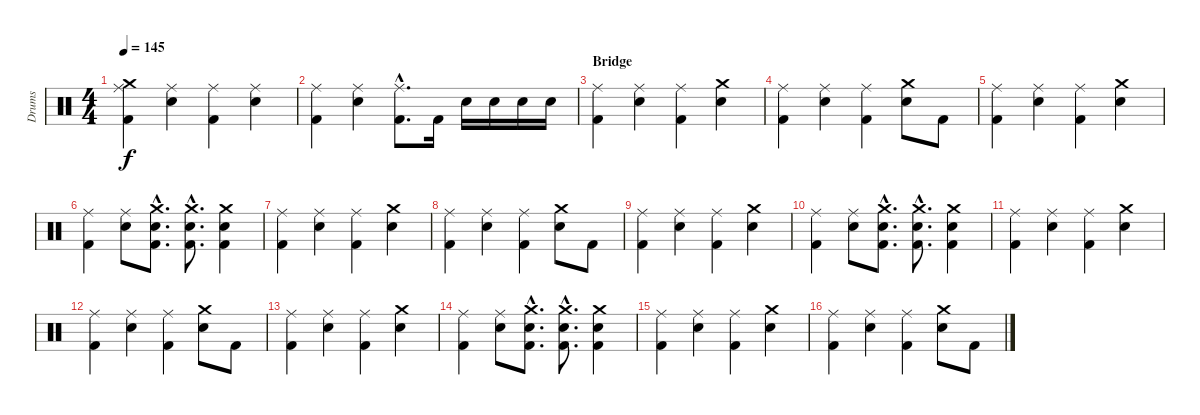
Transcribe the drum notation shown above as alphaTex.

\track ("Drums" "Drums") {instrument percussion}
\staff {score}
\articulation defaults
\ts (4 4)
\tempo 145
\clef neutral
\ks c
("Crash medium (hit)" "Ride (middle)" "Kick (hit) 2").4{dy f} ("Ride (middle)" "Electric Snare (hit)").4 ("Ride (middle)" "Kick (hit) 2").4 ("Ride (middle)" "Electric Snare (hit)").4 |
("Ride (middle)" "Kick (hit) 2").4 ("Ride (middle)" "Electric Snare (hit)").4 ("Ride (middle)"{hac} "Kick (hit) 2"{hac}).8{d} "Kick (hit) 2".16 "Electric Snare (hit)".16 "Electric Snare (hit)".16 "Electric Snare (hit)".16 "Electric Snare (hit)".16 |
\section ("" "Bridge")
("Ride (middle)" "Kick (hit) 2").4 ("Ride (middle)" "Electric Snare (hit)").4 ("Ride (middle)" "Kick (hit) 2").4 ("Crash medium (hit)" "Electric Snare (hit)").4 |
("Ride (middle)" "Kick (hit) 2").4 ("Ride (middle)" "Electric Snare (hit)").4 ("Ride (middle)" "Kick (hit) 2").4 ("Crash medium (hit)" "Electric Snare (hit)").8 "Kick (hit) 2".8 |
("Ride (middle)" "Kick (hit) 2").4 ("Ride (middle)" "Electric Snare (hit)").4 ("Ride (middle)" "Kick (hit) 2").4 ("Crash medium (hit)" "Electric Snare (hit)").4 |
("Ride (middle)" "Kick (hit) 2").4 ("Ride (middle)" "Electric Snare (hit)").8 ("Crash medium (hit)"{hac} "Electric Snare (hit)"{hac} "Kick (hit) 2"{hac}).8{d} ("Crash medium (hit)"{hac} "Electric Snare (hit)"{hac} "Kick (hit) 2"{hac}).8{d} ("Crash medium (hit)" "Electric Snare (hit)" "Kick (hit) 2").4 |
("Ride (middle)" "Kick (hit) 2").4 ("Ride (middle)" "Electric Snare (hit)").4 ("Ride (middle)" "Kick (hit) 2").4 ("Crash medium (hit)" "Electric Snare (hit)").4 |
("Ride (middle)" "Kick (hit) 2").4 ("Ride (middle)" "Electric Snare (hit)").4 ("Ride (middle)" "Kick (hit) 2").4 ("Crash medium (hit)" "Electric Snare (hit)").8 "Kick (hit) 2".8 |
("Ride (middle)" "Kick (hit) 2").4 ("Ride (middle)" "Electric Snare (hit)").4 ("Ride (middle)" "Kick (hit) 2").4 ("Crash medium (hit)" "Electric Snare (hit)").4 |
("Ride (middle)" "Kick (hit) 2").4 ("Ride (middle)" "Electric Snare (hit)").8 ("Crash medium (hit)"{hac} "Electric Snare (hit)"{hac} "Kick (hit) 2"{hac}).8{d} ("Crash medium (hit)"{hac} "Electric Snare (hit)"{hac} "Kick (hit) 2"{hac}).8{d} ("Crash medium (hit)" "Electric Snare (hit)" "Kick (hit) 2").4 |
("Ride (middle)" "Kick (hit) 2").4 ("Ride (middle)" "Electric Snare (hit)").4 ("Ride (middle)" "Kick (hit) 2").4 ("Crash medium (hit)" "Electric Snare (hit)").4 |
("Ride (middle)" "Kick (hit) 2").4 ("Ride (middle)" "Electric Snare (hit)").4 ("Ride (middle)" "Kick (hit) 2").4 ("Crash medium (hit)" "Electric Snare (hit)").8 "Kick (hit) 2".8 |
("Ride (middle)" "Kick (hit) 2").4 ("Ride (middle)" "Electric Snare (hit)").4 ("Ride (middle)" "Kick (hit) 2").4 ("Crash medium (hit)" "Electric Snare (hit)").4 |
("Ride (middle)" "Kick (hit) 2").4 ("Ride (middle)" "Electric Snare (hit)").8 ("Crash medium (hit)"{hac} "Electric Snare (hit)"{hac} "Kick (hit) 2"{hac}).8{d} ("Crash medium (hit)"{hac} "Electric Snare (hit)"{hac} "Kick (hit) 2"{hac}).8{d} ("Crash medium (hit)" "Electric Snare (hit)" "Kick (hit) 2").4 |
("Ride (middle)" "Kick (hit) 2").4 ("Ride (middle)" "Electric Snare (hit)").4 ("Ride (middle)" "Kick (hit) 2").4 ("Crash medium (hit)" "Electric Snare (hit)").4 |
("Ride (middle)" "Kick (hit) 2").4 ("Ride (middle)" "Electric Snare (hit)").4 ("Ride (middle)" "Kick (hit) 2").4 ("Crash medium (hit)" "Electric Snare (hit)").8 "Kick (hit) 2".8
